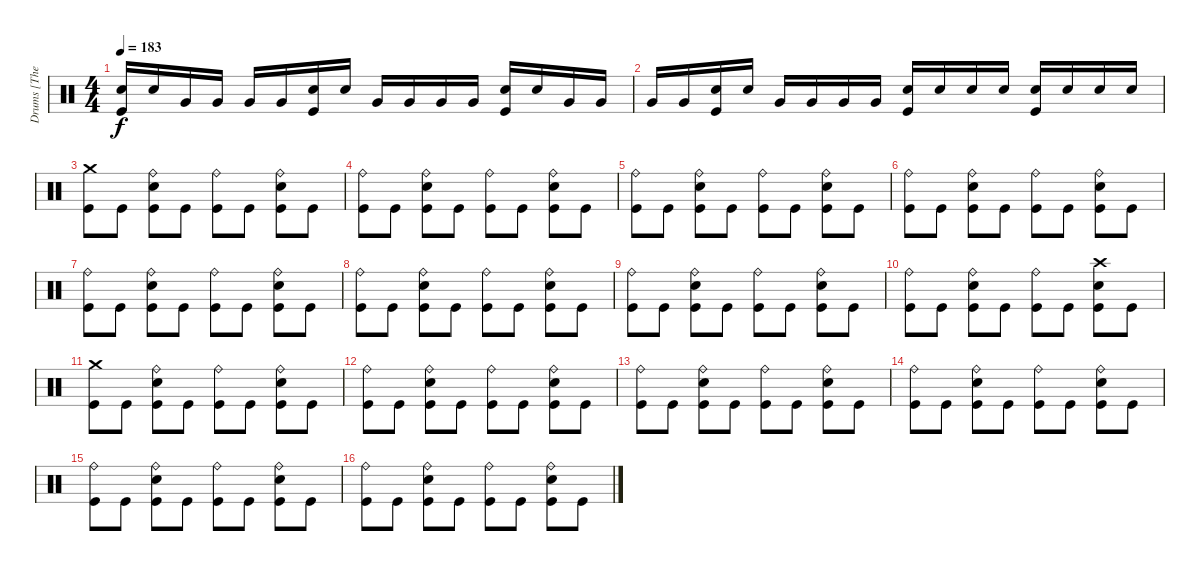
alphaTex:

\track ("Drums [The Rev]" "Drums [The") {instrument percussion}
\staff {score}
\articulation defaults
\ts (4 4)
\tempo 183
\clef neutral
\ks c
("Snare (hit) 2" "Kick (hit)").16{dy f} "Snare (hit) 2".16 "Very Low Tom (hit)".16 "Very Low Tom (hit)".16 "Very Low Tom (hit)".16 "Very Low Tom (hit)".16 ("Snare (hit) 2" "Kick (hit)").16 "Snare (hit) 2".16 "Very Low Tom (hit)".16 "Very Low Tom (hit)".16 "Very Low Tom (hit)".16 "Very Low Tom (hit)".16 ("Snare (hit) 2" "Kick (hit)").16 "Snare (hit) 2".16 "Very Low Tom (hit)".16 "Very Low Tom (hit)".16 |
"Very Low Tom (hit)".16 "Very Low Tom (hit)".16 ("Snare (hit) 2" "Kick (hit)").16 "Snare (hit) 2".16 "Very Low Tom (hit)".16 "Very Low Tom (hit)".16 "Very Low Tom (hit)".16 "Very Low Tom (hit)".16 ("Snare (hit) 2" "Kick (hit)").16 "Snare (hit) 2".16 "Snare (hit) 2".16 "Snare (hit) 2".16 ("Snare (hit) 2" "Kick (hit)").16 "Snare (hit) 2".16 "Snare (hit) 2".16 "Snare (hit) 2".16 |
("Crash medium (hit)" "Kick (hit)").8 "Kick (hit)".8 ("Ride (bell)" "Snare (hit) 2" "Kick (hit)").8 "Kick (hit)".8 ("Ride (bell)" "Kick (hit)").8 "Kick (hit)".8 ("Ride (bell)" "Snare (hit) 2" "Kick (hit)").8 "Kick (hit)".8 |
("Ride (bell)" "Kick (hit)").8 "Kick (hit)".8 ("Ride (bell)" "Snare (hit) 2" "Kick (hit)").8 "Kick (hit)".8 ("Ride (bell)" "Kick (hit)").8 "Kick (hit)".8 ("Ride (bell)" "Snare (hit) 2" "Kick (hit)").8 "Kick (hit)".8 |
("Ride (bell)" "Kick (hit)").8 "Kick (hit)".8 ("Ride (bell)" "Snare (hit) 2" "Kick (hit)").8 "Kick (hit)".8 ("Ride (bell)" "Kick (hit)").8 "Kick (hit)".8 ("Ride (bell)" "Snare (hit) 2" "Kick (hit)").8 "Kick (hit)".8 |
("Ride (bell)" "Kick (hit)").8 "Kick (hit)".8 ("Ride (bell)" "Snare (hit) 2" "Kick (hit)").8 "Kick (hit)".8 ("Ride (bell)" "Kick (hit)").8 "Kick (hit)".8 ("Ride (bell)" "Snare (hit) 2" "Kick (hit)").8 "Kick (hit)".8 |
("Ride (bell)" "Kick (hit)").8 "Kick (hit)".8 ("Ride (bell)" "Snare (hit) 2" "Kick (hit)").8 "Kick (hit)".8 ("Ride (bell)" "Kick (hit)").8 "Kick (hit)".8 ("Ride (bell)" "Snare (hit) 2" "Kick (hit)").8 "Kick (hit)".8 |
("Ride (bell)" "Kick (hit)").8 "Kick (hit)".8 ("Ride (bell)" "Snare (hit) 2" "Kick (hit)").8 "Kick (hit)".8 ("Ride (bell)" "Kick (hit)").8 "Kick (hit)".8 ("Ride (bell)" "Snare (hit) 2" "Kick (hit)").8 "Kick (hit)".8 |
("Ride (bell)" "Kick (hit)").8 "Kick (hit)".8 ("Ride (bell)" "Snare (hit) 2" "Kick (hit)").8 "Kick (hit)".8 ("Ride (bell)" "Kick (hit)").8 "Kick (hit)".8 ("Ride (bell)" "Snare (hit) 2" "Kick (hit)").8 "Kick (hit)".8 |
("Ride (bell)" "Kick (hit)").8 "Kick (hit)".8 ("Ride (bell)" "Snare (hit) 2" "Kick (hit)").8 "Kick (hit)".8 ("Ride (bell)" "Kick (hit)").8 "Kick (hit)".8 ("Crash high (hit)" "Snare (hit) 2" "Kick (hit)").8 "Kick (hit)".8 |
("Crash medium (hit)" "Kick (hit)").8 "Kick (hit)".8 ("Ride (bell)" "Snare (hit) 2" "Kick (hit)").8 "Kick (hit)".8 ("Ride (bell)" "Kick (hit)").8 "Kick (hit)".8 ("Ride (bell)" "Snare (hit) 2" "Kick (hit)").8 "Kick (hit)".8 |
("Ride (bell)" "Kick (hit)").8 "Kick (hit)".8 ("Ride (bell)" "Snare (hit) 2" "Kick (hit)").8 "Kick (hit)".8 ("Ride (bell)" "Kick (hit)").8 "Kick (hit)".8 ("Ride (bell)" "Snare (hit) 2" "Kick (hit)").8 "Kick (hit)".8 |
("Ride (bell)" "Kick (hit)").8 "Kick (hit)".8 ("Ride (bell)" "Snare (hit) 2" "Kick (hit)").8 "Kick (hit)".8 ("Ride (bell)" "Kick (hit)").8 "Kick (hit)".8 ("Ride (bell)" "Snare (hit) 2" "Kick (hit)").8 "Kick (hit)".8 |
("Ride (bell)" "Kick (hit)").8 "Kick (hit)".8 ("Ride (bell)" "Snare (hit) 2" "Kick (hit)").8 "Kick (hit)".8 ("Ride (bell)" "Kick (hit)").8 "Kick (hit)".8 ("Ride (bell)" "Snare (hit) 2" "Kick (hit)").8 "Kick (hit)".8 |
("Ride (bell)" "Kick (hit)").8 "Kick (hit)".8 ("Ride (bell)" "Snare (hit) 2" "Kick (hit)").8 "Kick (hit)".8 ("Ride (bell)" "Kick (hit)").8 "Kick (hit)".8 ("Ride (bell)" "Snare (hit) 2" "Kick (hit)").8 "Kick (hit)".8 |
("Ride (bell)" "Kick (hit)").8 "Kick (hit)".8 ("Ride (bell)" "Snare (hit) 2" "Kick (hit)").8 "Kick (hit)".8 ("Ride (bell)" "Kick (hit)").8 "Kick (hit)".8 ("Ride (bell)" "Snare (hit) 2" "Kick (hit)").8 "Kick (hit)".8
